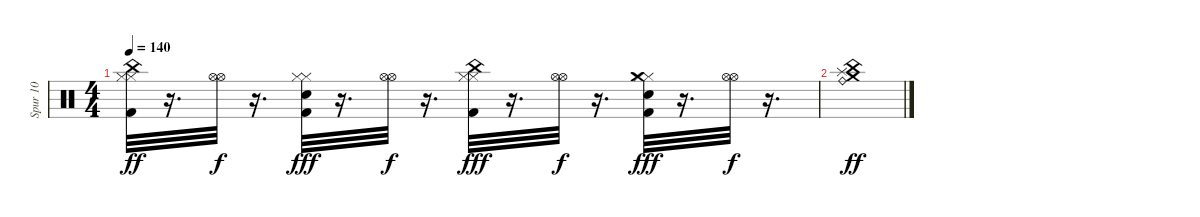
\track ("Spur 10" "Spur 10") {instrument percussion}
\staff {score}
\articulation defaults
\ts (4 4)
\tempo 140
\clef neutral
\ks c
("Kick (hit) 2" "Hi-Hat (closed)" "China (hit)" "Hi-Hat (closed)").32{dy ff} r.16{d} ("Hi-Hat (open)" "Hi-Hat (open)").32{dy f} r.16{d} ("Kick (hit) 2" "Hi-Hat (closed)" "Hi-Hat (closed)" "Hand Clap (hit)").32{dy fff} r.16{d} ("Hi-Hat (open)" "Hi-Hat (open)").32{dy f} r.16{d} ("Kick (hit) 2" "Hi-Hat (closed)" "China (hit)" "Hi-Hat (closed)").32{dy fff} r.16{d} ("Hi-Hat (open)" "Hi-Hat (open)").32{dy f} r.16{d} ("Kick (hit) 2" "Hi-Hat (closed)" "Crash medium (hit)" "Hi-Hat (closed)" "Hand Clap (hit)").32{dy fff} r.16{d} ("Hi-Hat (open)" "Hi-Hat (open)").32{dy f} r.16{d} |
("Ride (bell)" "China (hit)" "Crash medium (hit)" "Splash (hit)").1{dy ff}
